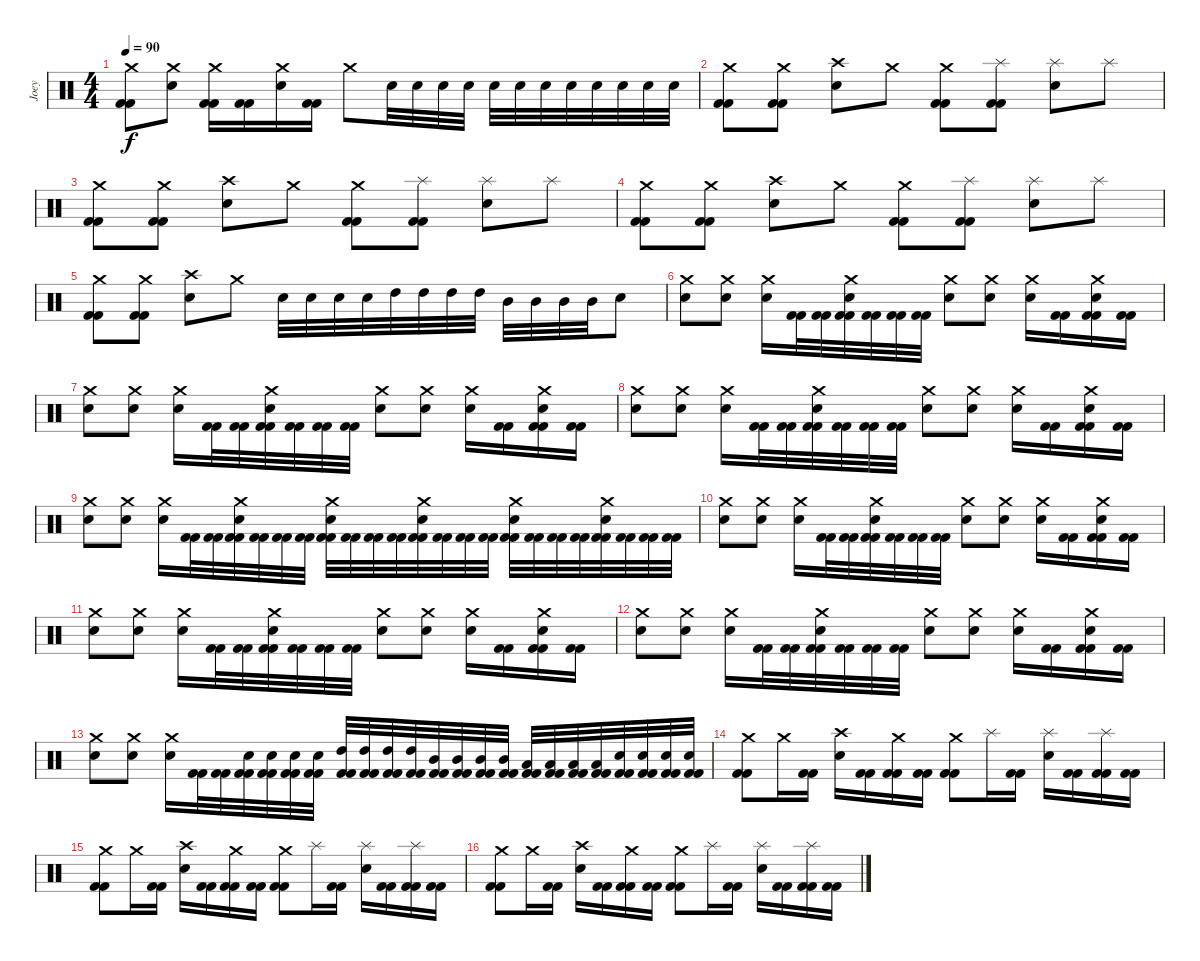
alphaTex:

\track ("Joey" "Joey") {instrument percussion}
\staff {score}
\articulation defaults
\ts (4 4)
\tempo 90
\clef neutral
\ks c
("Crash medium (hit)" "Kick (hit) 2" "Kick (hit) 2").8{dy f} ("Electric Snare (hit)" "Crash medium (hit)").8 ("Crash medium (hit)" "Kick (hit) 2" "Kick (hit) 2").16 ("Kick (hit) 2" "Kick (hit) 2").16 ("Electric Snare (hit)" "Crash medium (hit)").16 ("Kick (hit) 2" "Kick (hit) 2").16 "Crash medium (hit)".8 "Electric Snare (hit)".32 "Electric Snare (hit)".32 "Electric Snare (hit)".32 "Electric Snare (hit)".32 "Electric Snare (hit)".32 "Electric Snare (hit)".32 "Electric Snare (hit)".32 "Electric Snare (hit)".32 "Electric Snare (hit)".32 "Electric Snare (hit)".32 "Electric Snare (hit)".32 "Electric Snare (hit)".32 |
("Crash medium (hit)" "Kick (hit) 2" "Kick (hit) 2").8 ("Crash medium (hit)" "Kick (hit) 2" "Kick (hit) 2").8 ("Electric Snare (hit)" "Crash high (hit)").8 "Crash medium (hit)".8 ("Crash medium (hit)" "Kick (hit) 2" "Kick (hit) 2").8 ("Splash (hit)" "Kick (hit) 2" "Kick (hit) 2").8 ("Electric Snare (hit)" "Splash (hit)").8 "Splash (hit)".8 |
("Crash medium (hit)" "Kick (hit) 2" "Kick (hit) 2").8 ("Crash medium (hit)" "Kick (hit) 2" "Kick (hit) 2").8 ("Electric Snare (hit)" "Crash high (hit)").8 "Crash medium (hit)".8 ("Crash medium (hit)" "Kick (hit) 2" "Kick (hit) 2").8 ("Splash (hit)" "Kick (hit) 2" "Kick (hit) 2").8 ("Electric Snare (hit)" "Splash (hit)").8 "Splash (hit)".8 |
("Crash medium (hit)" "Kick (hit) 2" "Kick (hit) 2").8 ("Crash medium (hit)" "Kick (hit) 2" "Kick (hit) 2").8 ("Electric Snare (hit)" "Crash high (hit)").8 "Crash medium (hit)".8 ("Crash medium (hit)" "Kick (hit) 2" "Kick (hit) 2").8 ("Splash (hit)" "Kick (hit) 2" "Kick (hit) 2").8 ("Electric Snare (hit)" "Splash (hit)").8 "Splash (hit)".8 |
("Crash medium (hit)" "Kick (hit) 2" "Kick (hit) 2").8 ("Crash medium (hit)" "Kick (hit) 2" "Kick (hit) 2").8 ("Electric Snare (hit)" "Crash high (hit)").8 "Crash medium (hit)".8 "Electric Snare (hit)".32 "Electric Snare (hit)".32 "Electric Snare (hit)".32 "Electric Snare (hit)".32 "High Tom (hit)".32 "High Tom (hit)".32 "High Tom (hit)".32 "High Tom (hit)".32 "Mid Tom (hit)".32 "Mid Tom (hit)".32 "Mid Tom (hit)".32 "Mid Tom (hit)".32 "Electric Snare (hit)".8 |
("Electric Snare (hit)" "Crash medium (hit)").8 ("Electric Snare (hit)" "Crash medium (hit)").8 ("Electric Snare (hit)" "Crash medium (hit)").16 ("Kick (hit) 2" "Kick (hit) 2").32 ("Kick (hit) 2" "Kick (hit) 2").32 ("Electric Snare (hit)" "Crash medium (hit)" "Kick (hit) 2" "Kick (hit) 2").32 ("Kick (hit) 2" "Kick (hit) 2").32 ("Kick (hit) 2" "Kick (hit) 2").32 ("Kick (hit) 2" "Kick (hit) 2").32 ("Electric Snare (hit)" "Crash medium (hit)").8 ("Electric Snare (hit)" "Crash medium (hit)").8 ("Electric Snare (hit)" "Crash medium (hit)").16 ("Kick (hit) 2" "Kick (hit) 2").16 ("Electric Snare (hit)" "Crash medium (hit)" "Kick (hit) 2" "Kick (hit) 2").16 ("Kick (hit) 2" "Kick (hit) 2").16 |
("Electric Snare (hit)" "Crash medium (hit)").8 ("Electric Snare (hit)" "Crash medium (hit)").8 ("Electric Snare (hit)" "Crash medium (hit)").16 ("Kick (hit) 2" "Kick (hit) 2").32 ("Kick (hit) 2" "Kick (hit) 2").32 ("Electric Snare (hit)" "Crash medium (hit)" "Kick (hit) 2" "Kick (hit) 2").32 ("Kick (hit) 2" "Kick (hit) 2").32 ("Kick (hit) 2" "Kick (hit) 2").32 ("Kick (hit) 2" "Kick (hit) 2").32 ("Electric Snare (hit)" "Crash medium (hit)").8 ("Electric Snare (hit)" "Crash medium (hit)").8 ("Electric Snare (hit)" "Crash medium (hit)").16 ("Kick (hit) 2" "Kick (hit) 2").16 ("Electric Snare (hit)" "Crash medium (hit)" "Kick (hit) 2" "Kick (hit) 2").16 ("Kick (hit) 2" "Kick (hit) 2").16 |
("Electric Snare (hit)" "Crash medium (hit)").8 ("Electric Snare (hit)" "Crash medium (hit)").8 ("Electric Snare (hit)" "Crash medium (hit)").16 ("Kick (hit) 2" "Kick (hit) 2").32 ("Kick (hit) 2" "Kick (hit) 2").32 ("Electric Snare (hit)" "Crash medium (hit)" "Kick (hit) 2" "Kick (hit) 2").32 ("Kick (hit) 2" "Kick (hit) 2").32 ("Kick (hit) 2" "Kick (hit) 2").32 ("Kick (hit) 2" "Kick (hit) 2").32 ("Electric Snare (hit)" "Crash medium (hit)").8 ("Electric Snare (hit)" "Crash medium (hit)").8 ("Electric Snare (hit)" "Crash medium (hit)").16 ("Kick (hit) 2" "Kick (hit) 2").16 ("Electric Snare (hit)" "Crash medium (hit)" "Kick (hit) 2" "Kick (hit) 2").16 ("Kick (hit) 2" "Kick (hit) 2").16 |
("Electric Snare (hit)" "Crash medium (hit)").8 ("Electric Snare (hit)" "Crash medium (hit)").8 ("Electric Snare (hit)" "Crash medium (hit)").16 ("Kick (hit) 2" "Kick (hit) 2").32 ("Kick (hit) 2" "Kick (hit) 2").32 ("Electric Snare (hit)" "Crash medium (hit)" "Kick (hit) 2" "Kick (hit) 2").32 ("Kick (hit) 2" "Kick (hit) 2").32 ("Kick (hit) 2" "Kick (hit) 2").32 ("Kick (hit) 2" "Kick (hit) 2").32 ("Electric Snare (hit)" "Crash medium (hit)" "Kick (hit) 2" "Kick (hit) 2").32 ("Kick (hit) 2" "Kick (hit) 2").32 ("Kick (hit) 2" "Kick (hit) 2").32 ("Kick (hit) 2" "Kick (hit) 2").32 ("Electric Snare (hit)" "Crash medium (hit)" "Kick (hit) 2" "Kick (hit) 2").32 ("Kick (hit) 2" "Kick (hit) 2").32 ("Kick (hit) 2" "Kick (hit) 2").32 ("Kick (hit) 2" "Kick (hit) 2").32 ("Electric Snare (hit)" "Crash medium (hit)" "Kick (hit) 2" "Kick (hit) 2").32 ("Kick (hit) 2" "Kick (hit) 2").32 ("Kick (hit) 2" "Kick (hit) 2").32 ("Kick (hit) 2" "Kick (hit) 2").32 ("Electric Snare (hit)" "Crash medium (hit)" "Kick (hit) 2" "Kick (hit) 2").32 ("Kick (hit) 2" "Kick (hit) 2").32 ("Kick (hit) 2" "Kick (hit) 2").32 ("Kick (hit) 2" "Kick (hit) 2").32 |
("Electric Snare (hit)" "Crash medium (hit)").8 ("Electric Snare (hit)" "Crash medium (hit)").8 ("Electric Snare (hit)" "Crash medium (hit)").16 ("Kick (hit) 2" "Kick (hit) 2").32 ("Kick (hit) 2" "Kick (hit) 2").32 ("Electric Snare (hit)" "Crash medium (hit)" "Kick (hit) 2" "Kick (hit) 2").32 ("Kick (hit) 2" "Kick (hit) 2").32 ("Kick (hit) 2" "Kick (hit) 2").32 ("Kick (hit) 2" "Kick (hit) 2").32 ("Electric Snare (hit)" "Crash medium (hit)").8 ("Electric Snare (hit)" "Crash medium (hit)").8 ("Electric Snare (hit)" "Crash medium (hit)").16 ("Kick (hit) 2" "Kick (hit) 2").16 ("Electric Snare (hit)" "Crash medium (hit)" "Kick (hit) 2" "Kick (hit) 2").16 ("Kick (hit) 2" "Kick (hit) 2").16 |
("Electric Snare (hit)" "Crash medium (hit)").8 ("Electric Snare (hit)" "Crash medium (hit)").8 ("Electric Snare (hit)" "Crash medium (hit)").16 ("Kick (hit) 2" "Kick (hit) 2").32 ("Kick (hit) 2" "Kick (hit) 2").32 ("Electric Snare (hit)" "Crash medium (hit)" "Kick (hit) 2" "Kick (hit) 2").32 ("Kick (hit) 2" "Kick (hit) 2").32 ("Kick (hit) 2" "Kick (hit) 2").32 ("Kick (hit) 2" "Kick (hit) 2").32 ("Electric Snare (hit)" "Crash medium (hit)").8 ("Electric Snare (hit)" "Crash medium (hit)").8 ("Electric Snare (hit)" "Crash medium (hit)").16 ("Kick (hit) 2" "Kick (hit) 2").16 ("Electric Snare (hit)" "Crash medium (hit)" "Kick (hit) 2" "Kick (hit) 2").16 ("Kick (hit) 2" "Kick (hit) 2").16 |
("Electric Snare (hit)" "Crash medium (hit)").8 ("Electric Snare (hit)" "Crash medium (hit)").8 ("Electric Snare (hit)" "Crash medium (hit)").16 ("Kick (hit) 2" "Kick (hit) 2").32 ("Kick (hit) 2" "Kick (hit) 2").32 ("Electric Snare (hit)" "Crash medium (hit)" "Kick (hit) 2" "Kick (hit) 2").32 ("Kick (hit) 2" "Kick (hit) 2").32 ("Kick (hit) 2" "Kick (hit) 2").32 ("Kick (hit) 2" "Kick (hit) 2").32 ("Electric Snare (hit)" "Crash medium (hit)").8 ("Electric Snare (hit)" "Crash medium (hit)").8 ("Electric Snare (hit)" "Crash medium (hit)").16 ("Kick (hit) 2" "Kick (hit) 2").16 ("Electric Snare (hit)" "Crash medium (hit)" "Kick (hit) 2" "Kick (hit) 2").16 ("Kick (hit) 2" "Kick (hit) 2").16 |
("Electric Snare (hit)" "Crash medium (hit)").8 ("Electric Snare (hit)" "Crash medium (hit)").8 ("Electric Snare (hit)" "Crash medium (hit)").16 ("Kick (hit) 2" "Kick (hit) 2").32 ("Kick (hit) 2" "Kick (hit) 2").32 ("Electric Snare (hit)" "Kick (hit) 2" "Kick (hit) 2").32 ("Electric Snare (hit)" "Kick (hit) 2" "Kick (hit) 2").32 ("Electric Snare (hit)" "Kick (hit) 2" "Kick (hit) 2").32 ("Electric Snare (hit)" "Kick (hit) 2" "Kick (hit) 2").32 ("High Tom (hit)" "Kick (hit) 2" "Kick (hit) 2").32 ("High Tom (hit)" "Kick (hit) 2" "Kick (hit) 2").32 ("High Tom (hit)" "Kick (hit) 2" "Kick (hit) 2").32 ("High Tom (hit)" "Kick (hit) 2" "Kick (hit) 2").32 ("Mid Tom (hit)" "Kick (hit) 2" "Kick (hit) 2").32 ("Mid Tom (hit)" "Kick (hit) 2" "Kick (hit) 2").32 ("Mid Tom (hit)" "Kick (hit) 2" "Kick (hit) 2").32 ("Mid Tom (hit)" "Kick (hit) 2" "Kick (hit) 2").32 ("Low Tom (hit)" "Kick (hit) 2" "Kick (hit) 2").32 ("Low Tom (hit)" "Kick (hit) 2" "Kick (hit) 2").32 ("Low Tom (hit)" "Kick (hit) 2" "Kick (hit) 2").32 ("Low Tom (hit)" "Kick (hit) 2" "Kick (hit) 2").32 ("Electric Snare (hit)" "Kick (hit) 2" "Kick (hit) 2").32 ("Electric Snare (hit)" "Kick (hit) 2" "Kick (hit) 2").32 ("Electric Snare (hit)" "Kick (hit) 2" "Kick (hit) 2").32 ("Electric Snare (hit)" "Kick (hit) 2" "Kick (hit) 2").32 |
("Crash medium (hit)" "Kick (hit) 2" "Kick (hit) 2").8 "Crash medium (hit)".16 ("Kick (hit) 2" "Kick (hit) 2").16 ("Electric Snare (hit)" "Crash high (hit)").16 ("Kick (hit) 2" "Kick (hit) 2").16 ("Crash medium (hit)" "Kick (hit) 2" "Kick (hit) 2").16 ("Kick (hit) 2" "Kick (hit) 2").16 ("Crash medium (hit)" "Kick (hit) 2" "Kick (hit) 2").8 "Splash (hit)".16 ("Kick (hit) 2" "Kick (hit) 2").16 ("Electric Snare (hit)" "Splash (hit)").16 ("Kick (hit) 2" "Kick (hit) 2").16 ("Splash (hit)" "Kick (hit) 2" "Kick (hit) 2").16 ("Kick (hit) 2" "Kick (hit) 2").16 |
("Crash medium (hit)" "Kick (hit) 2" "Kick (hit) 2").8 "Crash medium (hit)".16 ("Kick (hit) 2" "Kick (hit) 2").16 ("Electric Snare (hit)" "Crash high (hit)").16 ("Kick (hit) 2" "Kick (hit) 2").16 ("Crash medium (hit)" "Kick (hit) 2" "Kick (hit) 2").16 ("Kick (hit) 2" "Kick (hit) 2").16 ("Crash medium (hit)" "Kick (hit) 2" "Kick (hit) 2").8 "Splash (hit)".16 ("Kick (hit) 2" "Kick (hit) 2").16 ("Electric Snare (hit)" "Splash (hit)").16 ("Kick (hit) 2" "Kick (hit) 2").16 ("Splash (hit)" "Kick (hit) 2" "Kick (hit) 2").16 ("Kick (hit) 2" "Kick (hit) 2").16 |
("Crash medium (hit)" "Kick (hit) 2" "Kick (hit) 2").8 "Crash medium (hit)".16 ("Kick (hit) 2" "Kick (hit) 2").16 ("Electric Snare (hit)" "Crash high (hit)").16 ("Kick (hit) 2" "Kick (hit) 2").16 ("Crash medium (hit)" "Kick (hit) 2" "Kick (hit) 2").16 ("Kick (hit) 2" "Kick (hit) 2").16 ("Crash medium (hit)" "Kick (hit) 2" "Kick (hit) 2").8 "Splash (hit)".16 ("Kick (hit) 2" "Kick (hit) 2").16 ("Electric Snare (hit)" "Splash (hit)").16 ("Kick (hit) 2" "Kick (hit) 2").16 ("Splash (hit)" "Kick (hit) 2" "Kick (hit) 2").16 ("Kick (hit) 2" "Kick (hit) 2").16
